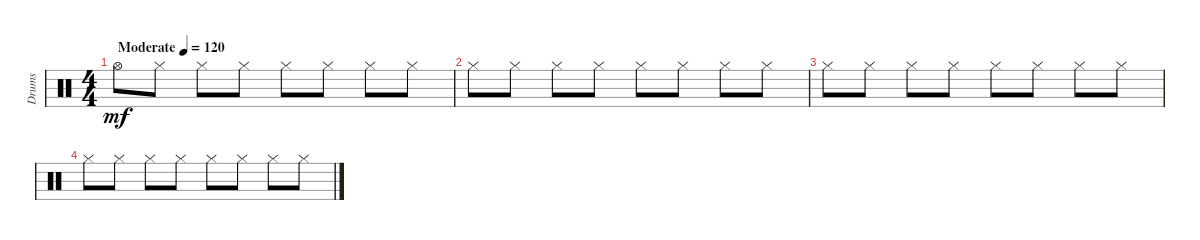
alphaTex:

\track ("Drums" "Drums") {instrument percussion}
\staff {score}
\articulation defaults
\ts (4 4)
\tempo (120 "Moderate")
\clef neutral
\ks c "Hi-Hat (open)".8{dy mf} "Hi-Hat (closed)".8 "Hi-Hat (closed)".8 "Hi-Hat (closed)".8 "Hi-Hat (closed)".8 "Hi-Hat (closed)".8 "Hi-Hat (closed)".8 "Hi-Hat (closed)".8
|
"Hi-Hat (closed)".8 "Hi-Hat (closed)".8 "Hi-Hat (closed)".8 "Hi-Hat (closed)".8 "Hi-Hat (closed)".8 "Hi-Hat (closed)".8 "Hi-Hat (closed)".8 "Hi-Hat (closed)".8 |
"Hi-Hat (closed)".8 "Hi-Hat (closed)".8 "Hi-Hat (closed)".8 "Hi-Hat (closed)".8 "Hi-Hat (closed)".8 "Hi-Hat (closed)".8 "Hi-Hat (closed)".8 "Hi-Hat (closed)".8 |
"Hi-Hat (closed)".8 "Hi-Hat (closed)".8 "Hi-Hat (closed)".8 "Hi-Hat (closed)".8 "Hi-Hat (closed)".8 "Hi-Hat (closed)".8 "Hi-Hat (closed)".8 "Hi-Hat (closed)".8
